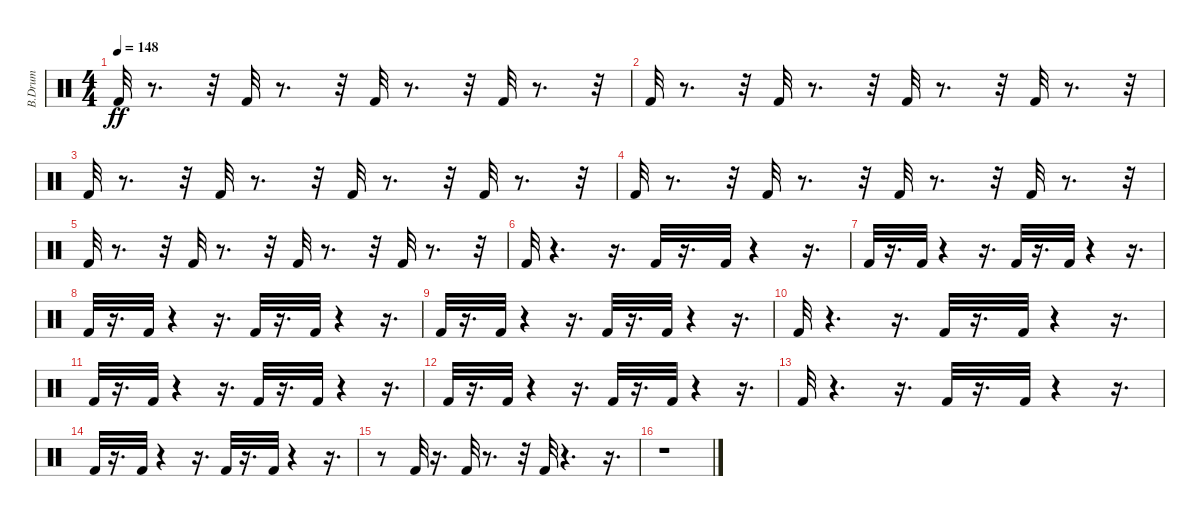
\track ("B.Drum                              " "B.Drum    ") {instrument percussion}
\staff {score}
\articulation defaults
\ts (4 4)
\tempo 148
\clef neutral
\ks c "Kick (hit) 2".32{dy ff}
r.8{d} r.32 "Kick (hit) 2".32 r.8{d} r.32 "Kick (hit) 2".32 r.8{d} r.32 "Kick (hit) 2".32 r.8{d} r.32 |
"Kick (hit) 2".32 r.8{d} r.32 "Kick (hit) 2".32 r.8{d} r.32 "Kick (hit) 2".32 r.8{d} r.32 "Kick (hit) 2".32 r.8{d} r.32 |
"Kick (hit) 2".32 r.8{d} r.32 "Kick (hit) 2".32 r.8{d} r.32 "Kick (hit) 2".32 r.8{d} r.32 "Kick (hit) 2".32 r.8{d} r.32 |
"Kick (hit) 2".32 r.8{d} r.32 "Kick (hit) 2".32 r.8{d} r.32 "Kick (hit) 2".32 r.8{d} r.32 "Kick (hit) 2".32 r.8{d} r.32 |
"Kick (hit) 2".32 r.8{d} r.32 "Kick (hit) 2".32 r.8{d} r.32 "Kick (hit) 2".32 r.8{d} r.32 "Kick (hit) 2".32 r.8{d} r.32 |
"Kick (hit) 2".32 r.4{d} r.16{d} "Kick (hit) 2".32 r.16{d} "Kick (hit) 2".32 r.4 r.16{d} |
"Kick (hit) 2".32 r.16{d} "Kick (hit) 2".32 r.4 r.16{d} "Kick (hit) 2".32 r.16{d} "Kick (hit) 2".32 r.4 r.16{d} |
"Kick (hit) 2".32 r.16{d} "Kick (hit) 2".32 r.4 r.16{d} "Kick (hit) 2".32 r.16{d} "Kick (hit) 2".32 r.4 r.16{d} |
"Kick (hit) 2".32 r.16{d} "Kick (hit) 2".32 r.4 r.16{d} "Kick (hit) 2".32 r.16{d} "Kick (hit) 2".32 r.4 r.16{d} |
"Kick (hit) 2".32 r.4{d} r.16{d} "Kick (hit) 2".32 r.16{d} "Kick (hit) 2".32 r.4 r.16{d} |
"Kick (hit) 2".32 r.16{d} "Kick (hit) 2".32 r.4 r.16{d} "Kick (hit) 2".32 r.16{d} "Kick (hit) 2".32 r.4 r.16{d} |
"Kick (hit) 2".32 r.16{d} "Kick (hit) 2".32 r.4 r.16{d} "Kick (hit) 2".32 r.16{d} "Kick (hit) 2".32 r.4 r.16{d} |
"Kick (hit) 2".32 r.4{d} r.16{d} "Kick (hit) 2".32 r.16{d} "Kick (hit) 2".32 r.4 r.16{d} |
"Kick (hit) 2".32 r.16{d} "Kick (hit) 2".32 r.4 r.16{d} "Kick (hit) 2".32 r.16{d} "Kick (hit) 2".32 r.4 r.16{d} |
r.8 "Kick (hit) 2".32 r.16{d} "Kick (hit) 2".32 r.8{d} r.32 "Kick (hit) 2".32 r.4{d} r.16{d} |
r.1
